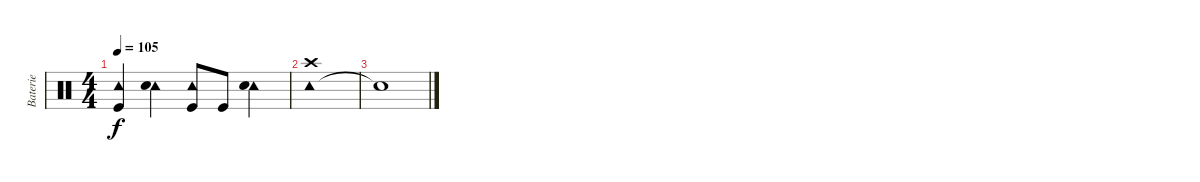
\track ("Baterie" "Baterie") {instrument percussion}
\staff {score}
\articulation defaults
\ts (4 4)
\tempo 105
\clef neutral
\ks c
("Tambourine (hit)" "Kick (hit)").4{dy f} ("Tambourine (hit)" "Snare (hit) 2").4 ("Tambourine (hit)" "Kick (hit)").8 "Kick (hit)".8 ("Tambourine (hit)" "Snare (hit) 2").4 |
("Tambourine (hit)" "Crash high (hit)").1 |
"Snare (hit)"{t}.1
